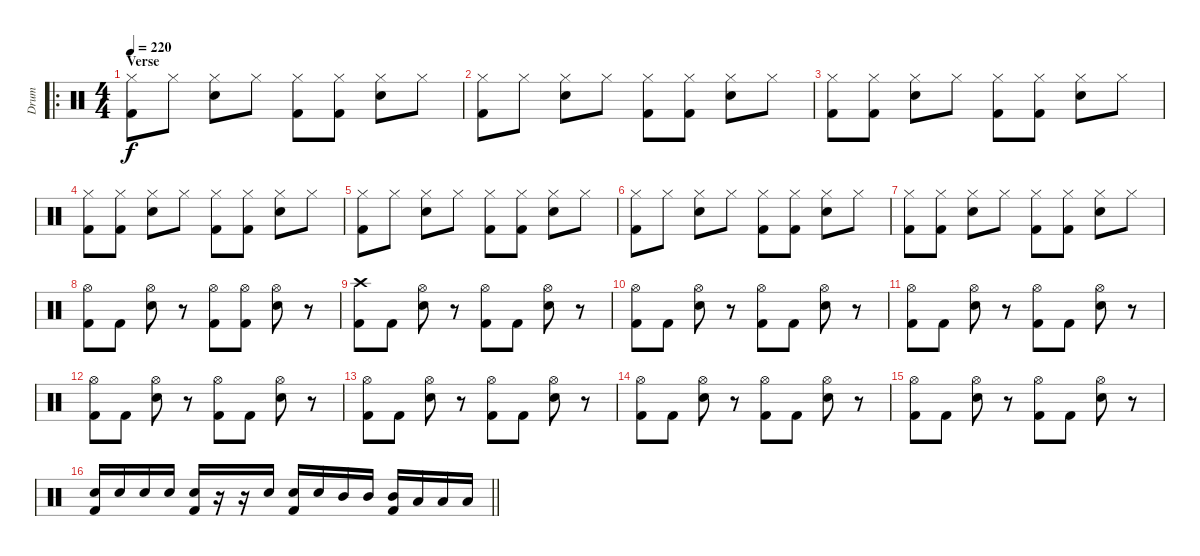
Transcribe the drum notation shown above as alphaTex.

\track ("Drum" "Drum") {instrument percussion}
\staff {score}
\articulation defaults
\ro
\ts (4 4)
\section ("" "Verse")
\tempo 220
\clef neutral
\ks c
("Kick (hit) 2" "Hi-Hat (closed)").8{dy f} "Hi-Hat (closed)".8 ("Electric Snare (hit)" "Hi-Hat (closed)").8 "Hi-Hat (closed)".8 ("Kick (hit) 2" "Hi-Hat (closed)").8 ("Kick (hit) 2" "Hi-Hat (closed)").8 ("Electric Snare (hit)" "Hi-Hat (closed)").8 "Hi-Hat (closed)".8 |
("Kick (hit) 2" "Hi-Hat (closed)").8 "Hi-Hat (closed)".8 ("Electric Snare (hit)" "Hi-Hat (closed)").8 "Hi-Hat (closed)".8 ("Kick (hit) 2" "Hi-Hat (closed)").8 ("Kick (hit) 2" "Hi-Hat (closed)").8 ("Electric Snare (hit)" "Hi-Hat (closed)").8 "Hi-Hat (closed)".8 |
("Kick (hit) 2" "Hi-Hat (closed)").8 ("Kick (hit) 2" "Hi-Hat (closed)").8 ("Electric Snare (hit)" "Hi-Hat (closed)").8 "Hi-Hat (closed)".8 ("Kick (hit) 2" "Hi-Hat (closed)").8 ("Kick (hit) 2" "Hi-Hat (closed)").8 ("Electric Snare (hit)" "Hi-Hat (closed)").8 "Hi-Hat (closed)".8 |
("Kick (hit) 2" "Hi-Hat (closed)").8 ("Kick (hit) 2" "Hi-Hat (closed)").8 ("Electric Snare (hit)" "Hi-Hat (closed)").8 "Hi-Hat (closed)".8 ("Kick (hit) 2" "Hi-Hat (closed)").8 ("Kick (hit) 2" "Hi-Hat (closed)").8 ("Electric Snare (hit)" "Hi-Hat (closed)").8 "Hi-Hat (closed)".8 |
("Kick (hit) 2" "Hi-Hat (closed)").8 "Hi-Hat (closed)".8 ("Electric Snare (hit)" "Hi-Hat (closed)").8 "Hi-Hat (closed)".8 ("Kick (hit) 2" "Hi-Hat (closed)").8 ("Kick (hit) 2" "Hi-Hat (closed)").8 ("Electric Snare (hit)" "Hi-Hat (closed)").8 "Hi-Hat (closed)".8 |
("Kick (hit) 2" "Hi-Hat (closed)").8 "Hi-Hat (closed)".8 ("Electric Snare (hit)" "Hi-Hat (closed)").8 "Hi-Hat (closed)".8 ("Kick (hit) 2" "Hi-Hat (closed)").8 ("Kick (hit) 2" "Hi-Hat (closed)").8 ("Electric Snare (hit)" "Hi-Hat (closed)").8 "Hi-Hat (closed)".8 |
("Kick (hit) 2" "Hi-Hat (closed)").8 ("Kick (hit) 2" "Hi-Hat (closed)").8 ("Electric Snare (hit)" "Hi-Hat (closed)").8 "Hi-Hat (closed)".8 ("Kick (hit) 2" "Hi-Hat (closed)").8 ("Kick (hit) 2" "Hi-Hat (closed)").8 ("Electric Snare (hit)" "Hi-Hat (closed)").8 "Hi-Hat (closed)".8 |
("Kick (hit) 2" "Hi-Hat (open)").8 "Kick (hit) 2".8 ("Electric Snare (hit)" "Hi-Hat (open)").8 r.8 ("Kick (hit) 2" "Hi-Hat (open)").8 ("Kick (hit) 2" "Hi-Hat (open)").8 ("Electric Snare (hit)" "Hi-Hat (open)").8 r.8 |
("Kick (hit) 2" "Crash high (hit)").8 "Kick (hit) 2".8 ("Electric Snare (hit)" "Hi-Hat (open)").8 r.8 ("Kick (hit) 2" "Hi-Hat (open)").8 "Kick (hit) 2".8 ("Electric Snare (hit)" "Hi-Hat (open)").8 r.8 |
("Kick (hit) 2" "Hi-Hat (open)").8 "Kick (hit) 2".8 ("Electric Snare (hit)" "Hi-Hat (open)").8 r.8 ("Kick (hit) 2" "Hi-Hat (open)").8 "Kick (hit) 2".8 ("Electric Snare (hit)" "Hi-Hat (open)").8 r.8 |
("Kick (hit) 2" "Hi-Hat (open)").8 "Kick (hit) 2".8 ("Electric Snare (hit)" "Hi-Hat (open)").8 r.8 ("Kick (hit) 2" "Hi-Hat (open)").8 "Kick (hit) 2".8 ("Electric Snare (hit)" "Hi-Hat (open)").8 r.8 |
("Kick (hit) 2" "Hi-Hat (open)").8 "Kick (hit) 2".8 ("Electric Snare (hit)" "Hi-Hat (open)").8 r.8 ("Kick (hit) 2" "Hi-Hat (open)").8 "Kick (hit) 2".8 ("Electric Snare (hit)" "Hi-Hat (open)").8 r.8 |
("Kick (hit) 2" "Hi-Hat (open)").8 "Kick (hit) 2".8 ("Electric Snare (hit)" "Hi-Hat (open)").8 r.8 ("Kick (hit) 2" "Hi-Hat (open)").8 "Kick (hit) 2".8 ("Electric Snare (hit)" "Hi-Hat (open)").8 r.8 |
("Kick (hit) 2" "Hi-Hat (open)").8 "Kick (hit) 2".8 ("Electric Snare (hit)" "Hi-Hat (open)").8 r.8 ("Kick (hit) 2" "Hi-Hat (open)").8 "Kick (hit) 2".8 ("Electric Snare (hit)" "Hi-Hat (open)").8 r.8 |
("Kick (hit) 2" "Hi-Hat (open)").8 "Kick (hit) 2".8 ("Electric Snare (hit)" "Hi-Hat (open)").8 r.8 ("Kick (hit) 2" "Hi-Hat (open)").8 "Kick (hit) 2".8 ("Electric Snare (hit)" "Hi-Hat (open)").8 r.8 |
\barLineRight lightlight
("Kick (hit) 2" "Electric Snare (hit)").16 "Electric Snare (hit)".16 "Electric Snare (hit)".16 "Electric Snare (hit)".16 ("Kick (hit) 2" "Electric Snare (hit)").16 r.16 r.16 "Electric Snare (hit)".16 ("Kick (hit) 2" "Electric Snare (hit)").16 "Electric Snare (hit)".16 "Mid Tom (hit)".16 "Mid Tom (hit)".16 ("Kick (hit) 2" "Mid Tom (hit)").16 "Low Floor Tom (hit)".16 "Low Floor Tom (hit)".16 "Low Floor Tom (hit)".16
